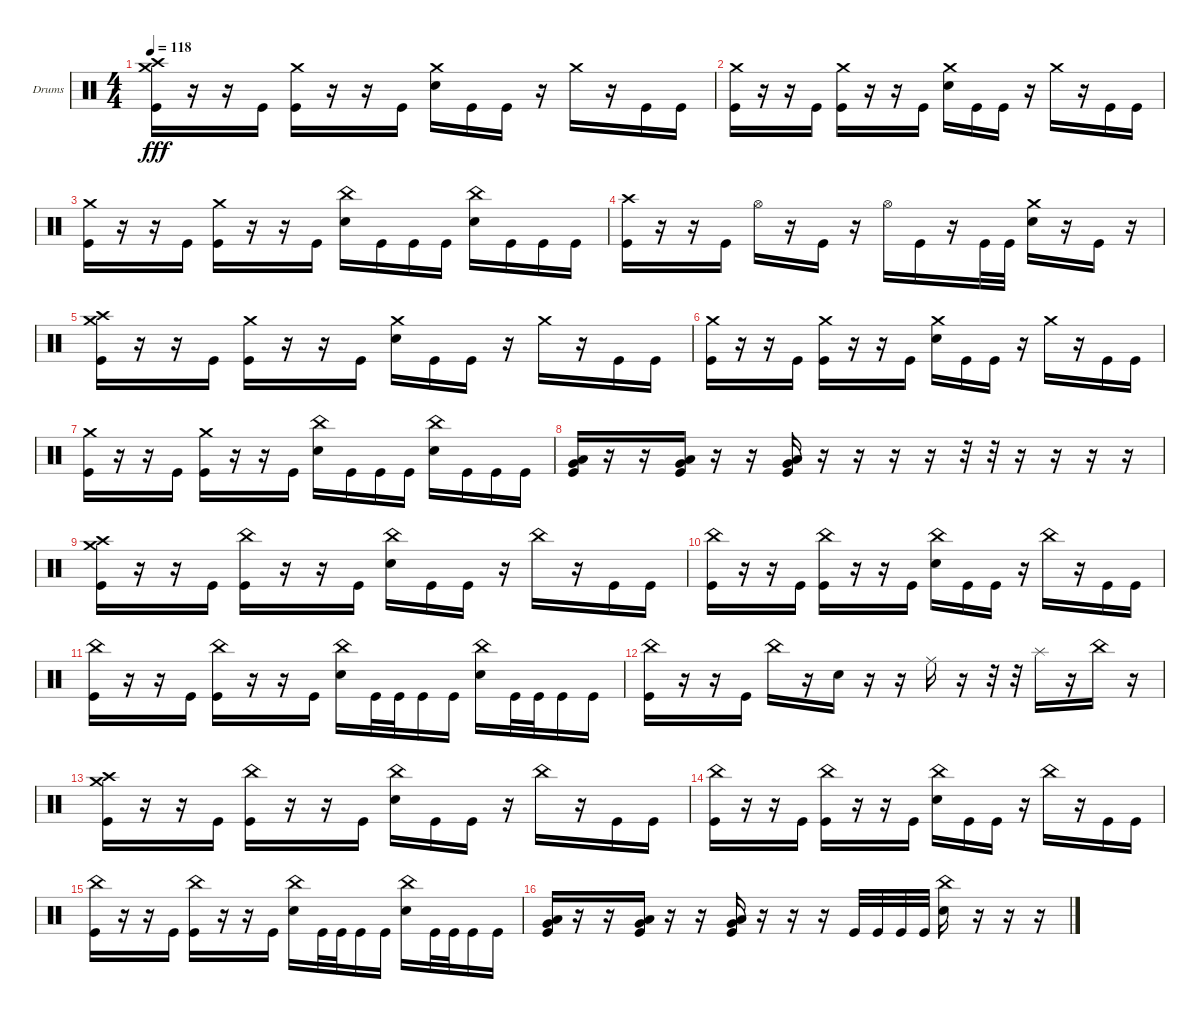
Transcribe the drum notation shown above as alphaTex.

\bracketExtendMode groupsimilarinstruments
\firstSystemTrackNameOrientation horizontal
\otherSystemsTrackNameOrientation horizontal
\track ("Drumkit" "Drums") {instrument percussion}
\staff {score}
\articulation defaults
\ts (4 4)
\tempo 118
\clef neutral
\ks c
("Crash medium (hit)" "Crash high (hit)" "Kick (hit)").16{dy fff} r.16 r.16 "Kick (hit)".16 ("Crash medium (hit)" "Kick (hit)").16 r.16 r.16 "Kick (hit)".16 ("Crash medium (hit)" "Snare (hit) 2").16 "Kick (hit)".16 "Kick (hit)".16 r.16 "Crash medium (hit)".16 r.16 "Kick (hit)".16 "Kick (hit)".16 |
("Crash medium (hit)" "Kick (hit)").16 r.16 r.16 "Kick (hit)".16 ("Crash medium (hit)" "Kick (hit)").16 r.16 r.16 "Kick (hit)".16 ("Crash medium (hit)" "Snare (hit) 2").16 "Kick (hit)".16 "Kick (hit)".16 r.16 "Crash medium (hit)".16 r.16 "Kick (hit)".16 "Kick (hit)".16 |
("Crash medium (hit)" "Kick (hit)").16 r.16 r.16 "Kick (hit)".16 ("Crash medium (hit)" "Kick (hit)").16 r.16 r.16 "Kick (hit)".16 ("Snare (hit) 2" "China (hit)").16 "Kick (hit)".16 "Kick (hit)".16 "Kick (hit)".16 ("China (hit)" "Snare (hit) 2").16 "Kick (hit)".16 "Kick (hit)".16 "Kick (hit)".16 |
("Kick (hit)" "Crash high (hit)").16 r.16 r.16 "Kick (hit)".16 "Hi-Hat (open)".16 r.16 "Kick (hit)".16 r.16 "Hi-Hat (open)".16 "Kick (hit)".16 r.16 "Kick (hit)".32 "Kick (hit)".32 ("Crash medium (hit)" "Snare (hit) 2").16 r.16 "Kick (hit)".16 r.16 |
("Crash medium (hit)" "Crash high (hit)" "Kick (hit)").16 r.16 r.16 "Kick (hit)".16 ("Crash medium (hit)" "Kick (hit)").16 r.16 r.16 "Kick (hit)".16 ("Crash medium (hit)" "Snare (hit) 2").16 "Kick (hit)".16 "Kick (hit)".16 r.16 "Crash medium (hit)".16 r.16 "Kick (hit)".16 "Kick (hit)".16 |
("Crash medium (hit)" "Kick (hit)").16 r.16 r.16 "Kick (hit)".16 ("Crash medium (hit)" "Kick (hit)").16 r.16 r.16 "Kick (hit)".16 ("Crash medium (hit)" "Snare (hit) 2").16 "Kick (hit)".16 "Kick (hit)".16 r.16 "Crash medium (hit)".16 r.16 "Kick (hit)".16 "Kick (hit)".16 |
("Crash medium (hit)" "Kick (hit)").16 r.16 r.16 "Kick (hit)".16 ("Crash medium (hit)" "Kick (hit)").16 r.16 r.16 "Kick (hit)".16 ("Snare (hit) 2" "China (hit)").16 "Kick (hit)".16 "Kick (hit)".16 "Kick (hit)".16 ("China (hit)" "Snare (hit) 2").16 "Kick (hit)".16 "Kick (hit)".16 "Kick (hit)".16 |
("Kick (hit)" "Very Low Tom (hit)" "Low Tom (hit)").16 r.16 r.16 ("Kick (hit)" "Very Low Tom (hit)" "Low Tom (hit)").16 r.16 r.16 ("Kick (hit)" "Low Tom (hit)" "Very Low Tom (hit)").16 r.16 r.16 r.16 r.16 r.32 r.32 r.16 r.16 r.16 r.16 |
("Crash medium (hit)" "Crash high (hit)" "Kick (hit)").16 r.16 r.16 "Kick (hit)".16 ("Kick (hit)" "China (hit)").16 r.16 r.16 "Kick (hit)".16 ("Snare (hit) 2" "China (hit)").16 "Kick (hit)".16 "Kick (hit)".16 r.16 "China (hit)".16 r.16 "Kick (hit)".16 "Kick (hit)".16 |
("Kick (hit)" "China (hit)").16 r.16 r.16 "Kick (hit)".16 ("Kick (hit)" "China (hit)").16 r.16 r.16 "Kick (hit)".16 ("Snare (hit) 2" "China (hit)").16 "Kick (hit)".16 "Kick (hit)".16 r.16 "China (hit)".16 r.16 "Kick (hit)".16 "Kick (hit)".16 |
("Kick (hit)" "China (hit)").16 r.16 r.16 "Kick (hit)".16 ("Kick (hit)" "China (hit)").16 r.16 r.16 "Kick (hit)".16 ("Snare (hit) 2" "China (hit)").16 "Kick (hit)".32 "Kick (hit)".32 "Kick (hit)".16 "Kick (hit)".16 ("China (hit)" "Snare (hit) 2").16 "Kick (hit)".32 "Kick (hit)".32 "Kick (hit)".16 "Kick (hit)".16 |
("Kick (hit)" "China (hit)").16 r.16 r.16 "Kick (hit)".16 "China (hit)".16 r.16 "Snare (hit) 2".16 r.16 r.16 "Ride (middle)".16 r.16 r.32 r.32 "Splash (hit)".16 r.16 "China (hit)".16 r.16 |
("Crash medium (hit)" "Crash high (hit)" "Kick (hit)").16 r.16 r.16 "Kick (hit)".16 ("Kick (hit)" "China (hit)").16 r.16 r.16 "Kick (hit)".16 ("Snare (hit) 2" "China (hit)").16 "Kick (hit)".16 "Kick (hit)".16 r.16 "China (hit)".16 r.16 "Kick (hit)".16 "Kick (hit)".16 |
("Kick (hit)" "China (hit)").16 r.16 r.16 "Kick (hit)".16 ("Kick (hit)" "China (hit)").16 r.16 r.16 "Kick (hit)".16 ("Snare (hit) 2" "China (hit)").16 "Kick (hit)".16 "Kick (hit)".16 r.16 "China (hit)".16 r.16 "Kick (hit)".16 "Kick (hit)".16 |
("Kick (hit)" "China (hit)").16 r.16 r.16 "Kick (hit)".16 ("Kick (hit)" "China (hit)").16 r.16 r.16 "Kick (hit)".16 ("Snare (hit) 2" "China (hit)").16 "Kick (hit)".32 "Kick (hit)".32 "Kick (hit)".16 "Kick (hit)".16 ("China (hit)" "Snare (hit) 2").16 "Kick (hit)".32 "Kick (hit)".32 "Kick (hit)".16 "Kick (hit)".16 |
("Kick (hit)" "Very Low Tom (hit)" "Low Tom (hit)").16 r.16 r.16 ("Kick (hit)" "Very Low Tom (hit)" "Low Tom (hit)").16 r.16 r.16 ("Kick (hit)" "Low Tom (hit)" "Very Low Tom (hit)").16 r.16 r.16 r.16 "Kick (hit)".32 "Kick (hit)".32 "Kick (hit)".32 "Kick (hit)".32 ("Snare (hit) 2" "China (hit)").16 r.16 r.16 r.16
